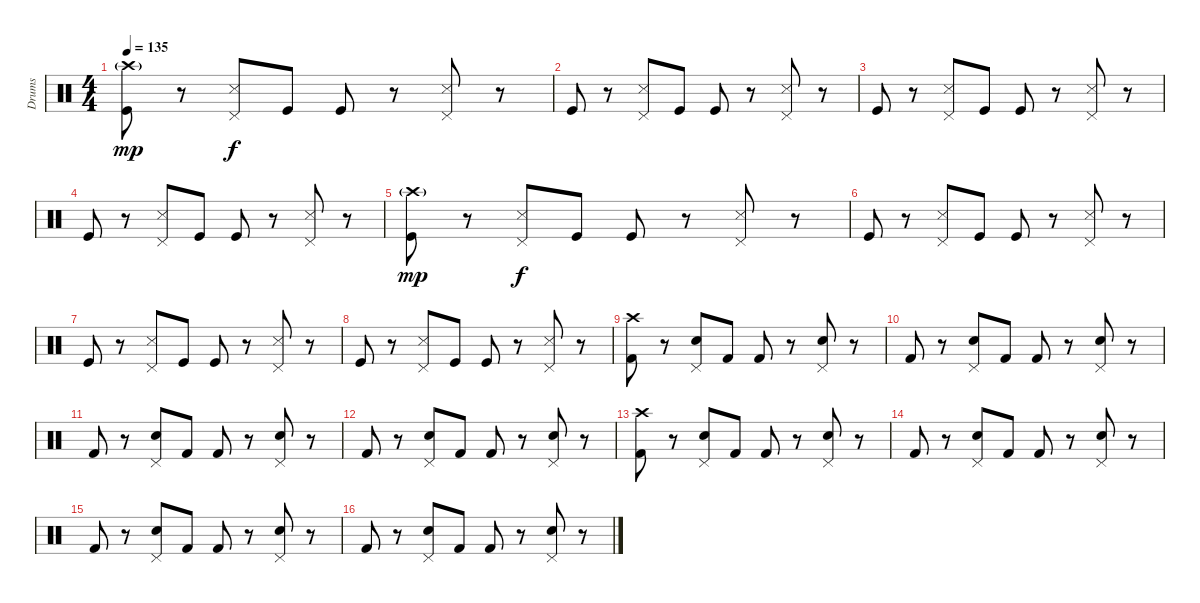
\track ("Drums" "Drums") {instrument percussion}
\staff {score}
\articulation defaults
\ts (4 4)
\tempo 135
\clef neutral
\ks c
("Crash high (hit)"{g} "Kick (hit)").8{dy mp} r.8 ("Pedal Hi-Hat (hit)" "Snare (side stick) 3").8{dy f} "Kick (hit)".8 "Kick (hit)".8 r.8 ("Pedal Hi-Hat (hit)" "Snare (side stick) 3").8 r.8 |
"Kick (hit)".8 r.8 ("Pedal Hi-Hat (hit)" "Snare (side stick) 3").8 "Kick (hit)".8 "Kick (hit)".8 r.8 ("Pedal Hi-Hat (hit)" "Snare (side stick) 3").8 r.8 |
"Kick (hit)".8 r.8 ("Pedal Hi-Hat (hit)" "Snare (side stick) 3").8 "Kick (hit)".8 "Kick (hit)".8 r.8 ("Pedal Hi-Hat (hit)" "Snare (side stick) 3").8 r.8 |
"Kick (hit)".8 r.8 ("Pedal Hi-Hat (hit)" "Snare (side stick) 3").8 "Kick (hit)".8 "Kick (hit)".8 r.8 ("Pedal Hi-Hat (hit)" "Snare (side stick) 3").8 r.8 |
("Crash high (hit)"{g} "Kick (hit)").8{dy mp} r.8 ("Pedal Hi-Hat (hit)" "Snare (side stick) 3").8{dy f} "Kick (hit)".8 "Kick (hit)".8 r.8 ("Pedal Hi-Hat (hit)" "Snare (side stick) 3").8 r.8 |
"Kick (hit)".8 r.8 ("Pedal Hi-Hat (hit)" "Snare (side stick) 3").8 "Kick (hit)".8 "Kick (hit)".8 r.8 ("Pedal Hi-Hat (hit)" "Snare (side stick) 3").8 r.8 |
"Kick (hit)".8 r.8 ("Pedal Hi-Hat (hit)" "Snare (side stick) 3").8 "Kick (hit)".8 "Kick (hit)".8 r.8 ("Pedal Hi-Hat (hit)" "Snare (side stick) 3").8 r.8 |
"Kick (hit)".8 r.8 ("Pedal Hi-Hat (hit)" "Snare (side stick) 3").8 "Kick (hit)".8 "Kick (hit)".8 r.8 ("Pedal Hi-Hat (hit)" "Snare (side stick) 3").8 r.8 |
("Crash high (hit)" "Kick (hit) 2").8 r.8 ("Pedal Hi-Hat (hit)" "Electric Snare (hit)").8 "Kick (hit) 2".8 "Kick (hit) 2".8 r.8 ("Pedal Hi-Hat (hit)" "Electric Snare (hit)").8 r.8 |
"Kick (hit) 2".8 r.8 ("Pedal Hi-Hat (hit)" "Electric Snare (hit)").8 "Kick (hit) 2".8 "Kick (hit) 2".8 r.8 ("Pedal Hi-Hat (hit)" "Electric Snare (hit)").8 r.8 |
"Kick (hit) 2".8 r.8 ("Pedal Hi-Hat (hit)" "Electric Snare (hit)").8 "Kick (hit) 2".8 "Kick (hit) 2".8 r.8 ("Pedal Hi-Hat (hit)" "Electric Snare (hit)").8 r.8 |
"Kick (hit) 2".8 r.8 ("Pedal Hi-Hat (hit)" "Electric Snare (hit)").8 "Kick (hit) 2".8 "Kick (hit) 2".8 r.8 ("Pedal Hi-Hat (hit)" "Electric Snare (hit)").8 r.8 |
("Crash high (hit)" "Kick (hit) 2").8 r.8 ("Pedal Hi-Hat (hit)" "Electric Snare (hit)").8 "Kick (hit) 2".8 "Kick (hit) 2".8 r.8 ("Pedal Hi-Hat (hit)" "Electric Snare (hit)").8 r.8 |
"Kick (hit) 2".8 r.8 ("Pedal Hi-Hat (hit)" "Electric Snare (hit)").8 "Kick (hit) 2".8 "Kick (hit) 2".8 r.8 ("Pedal Hi-Hat (hit)" "Electric Snare (hit)").8 r.8 |
"Kick (hit) 2".8 r.8 ("Pedal Hi-Hat (hit)" "Electric Snare (hit)").8 "Kick (hit) 2".8 "Kick (hit) 2".8 r.8 ("Pedal Hi-Hat (hit)" "Electric Snare (hit)").8 r.8 |
"Kick (hit) 2".8 r.8 ("Pedal Hi-Hat (hit)" "Electric Snare (hit)").8 "Kick (hit) 2".8 "Kick (hit) 2".8 r.8 ("Pedal Hi-Hat (hit)" "Electric Snare (hit)").8 r.8
